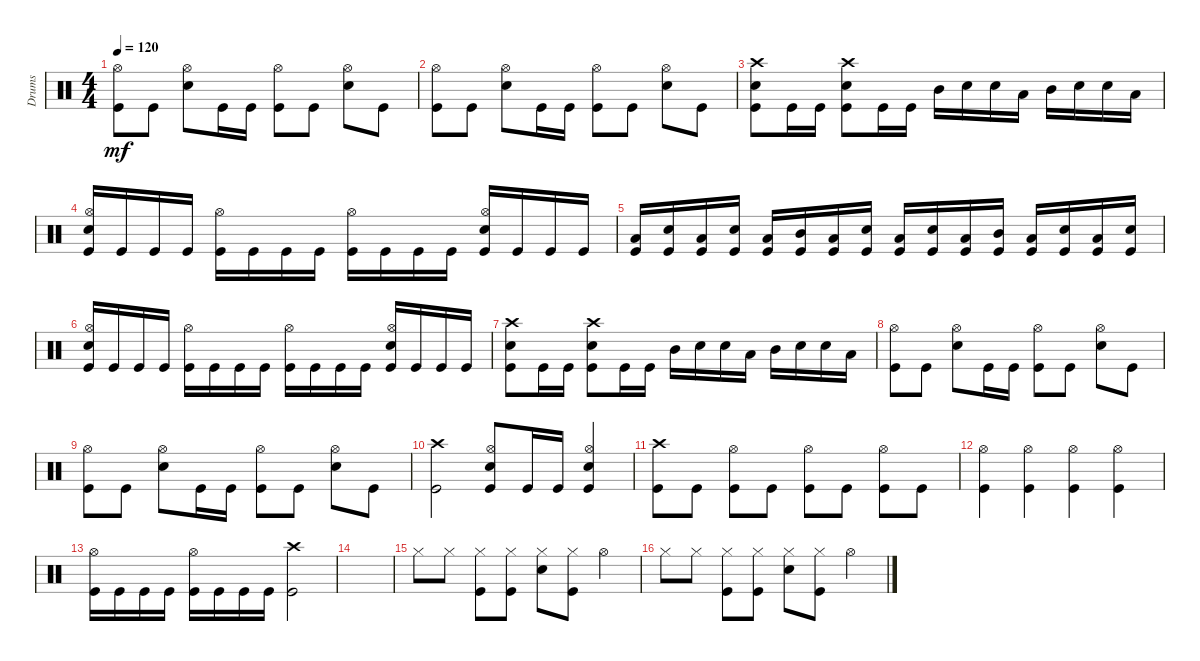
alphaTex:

\track ("Drums" "Drums") {instrument percussion}
\staff {score}
\articulation defaults
\ts (4 4)
\tempo 120
\clef neutral
\ks c
("Kick (hit)" "Hi-Hat (open)").8{dy mf} "Kick (hit)".8 ("Hi-Hat (open)" "Snare (hit) 2").8 "Kick (hit)".16 "Kick (hit)".16 ("Hi-Hat (open)" "Kick (hit)").8 "Kick (hit)".8 ("Hi-Hat (open)" "Snare (hit) 2").8 "Kick (hit)".8 |
("Kick (hit)" "Hi-Hat (open)").8 "Kick (hit)".8 ("Hi-Hat (open)" "Snare (hit) 2").8 "Kick (hit)".16 "Kick (hit)".16 ("Hi-Hat (open)" "Kick (hit)").8 "Kick (hit)".8 ("Hi-Hat (open)" "Snare (hit) 2").8 "Kick (hit)".8 |
("Kick (hit)" "Crash high (hit)" "Snare (hit) 2").8 "Kick (hit)".16 "Kick (hit)".16 ("Kick (hit)" "Crash high (hit)" "Snare (hit) 2").8 "Kick (hit)".16 "Kick (hit)".16 "Mid Tom (hit)".16 "Snare (hit) 2".16 "Snare (hit) 2".16 "Low Floor Tom (hit)".16 "Mid Tom (hit)".16 "Snare (hit) 2".16 "Snare (hit) 2".16 "Low Floor Tom (hit)".16 |
("Kick (hit)" "Hi-Hat (open)" "Snare (hit) 2").16 "Kick (hit)".16 "Kick (hit)".16 "Kick (hit)".16 ("Kick (hit)" "Hi-Hat (open)").16 "Kick (hit)".16 "Kick (hit)".16 "Kick (hit)".16 ("Kick (hit)" "Hi-Hat (open)").16 "Kick (hit)".16 "Kick (hit)".16 "Kick (hit)".16 ("Kick (hit)" "Hi-Hat (open)" "Snare (hit) 2").16 "Kick (hit)".16 "Kick (hit)".16 "Kick (hit)".16 |
("Low Floor Tom (hit)" "Kick (hit)").16 ("Snare (hit) 2" "Kick (hit)").16 ("Low Tom (hit)" "Kick (hit)").16 ("Snare (hit) 2" "Kick (hit)").16 ("Low Floor Tom (hit)" "Kick (hit)").16 ("Mid Tom (hit)" "Kick (hit)").16 ("Low Floor Tom (hit)" "Kick (hit)").16 ("Snare (hit) 2" "Kick (hit)").16 ("Low Tom (hit)" "Kick (hit)").16 ("Snare (hit) 2" "Kick (hit)").16 ("Low Floor Tom (hit)" "Kick (hit)").16 ("Mid Tom (hit)" "Kick (hit)").16 ("Low Floor Tom (hit)" "Kick (hit)").16 ("Snare (hit) 2" "Kick (hit)").16 ("Low Tom (hit)" "Kick (hit)").16 ("Snare (hit) 2" "Kick (hit)").16 |
("Kick (hit)" "Hi-Hat (open)" "Snare (hit) 2").16 "Kick (hit)".16 "Kick (hit)".16 "Kick (hit)".16 ("Kick (hit)" "Hi-Hat (open)").16 "Kick (hit)".16 "Kick (hit)".16 "Kick (hit)".16 ("Kick (hit)" "Hi-Hat (open)").16 "Kick (hit)".16 "Kick (hit)".16 "Kick (hit)".16 ("Kick (hit)" "Hi-Hat (open)" "Snare (hit) 2").16 "Kick (hit)".16 "Kick (hit)".16 "Kick (hit)".16 |
("Kick (hit)" "Crash high (hit)" "Snare (hit) 2").8 "Kick (hit)".16 "Kick (hit)".16 ("Kick (hit)" "Crash high (hit)" "Snare (hit) 2").8 "Kick (hit)".16 "Kick (hit)".16 "Mid Tom (hit)".16 "Snare (hit) 2".16 "Snare (hit) 2".16 "Low Floor Tom (hit)".16 "Mid Tom (hit)".16 "Snare (hit) 2".16 "Snare (hit) 2".16 "Low Floor Tom (hit)".16 |
("Kick (hit)" "Hi-Hat (open)").8 "Kick (hit)".8 ("Hi-Hat (open)" "Snare (hit) 2").8 "Kick (hit)".16 "Kick (hit)".16 ("Hi-Hat (open)" "Kick (hit)").8 "Kick (hit)".8 ("Hi-Hat (open)" "Snare (hit) 2").8 "Kick (hit)".8 |
("Kick (hit)" "Hi-Hat (open)").8 "Kick (hit)".8 ("Hi-Hat (open)" "Snare (hit) 2").8 "Kick (hit)".16 "Kick (hit)".16 ("Hi-Hat (open)" "Kick (hit)").8 "Kick (hit)".8 ("Hi-Hat (open)" "Snare (hit) 2").8 "Kick (hit)".8 |
("Kick (hit)" "Crash high (hit)").2 ("Kick (hit)" "Hi-Hat (open)" "Snare (hit) 2").8 "Kick (hit)".16 "Kick (hit)".16 ("Kick (hit)" "Hi-Hat (open)" "Snare (hit) 2").4 |
("Kick (hit)" "Crash high (hit)").8 "Kick (hit)".8 ("Kick (hit)" "Hi-Hat (open)").8 "Kick (hit)".8 ("Kick (hit)" "Hi-Hat (open)").8 "Kick (hit)".8 ("Kick (hit)" "Hi-Hat (open)").8 "Kick (hit)".8 |
("Kick (hit)" "Hi-Hat (open)").4 ("Kick (hit)" "Hi-Hat (open)").4 ("Kick (hit)" "Hi-Hat (open)").4 ("Kick (hit)" "Hi-Hat (open)").4 |
("Kick (hit)" "Hi-Hat (open)").16 "Kick (hit)".16 "Kick (hit)".16 "Kick (hit)".16 ("Hi-Hat (open)" "Kick (hit)").16 "Kick (hit)".16 "Kick (hit)".16 "Kick (hit)".16 ("Kick (hit)" "Crash high (hit)").2 |
|
"Hi-Hat (closed)".8 "Hi-Hat (closed)".8 ("Hi-Hat (closed)" "Kick (hit)").8 ("Kick (hit)" "Hi-Hat (closed)").8 ("Snare (hit) 2" "Hi-Hat (closed)").8 ("Kick (hit)" "Hi-Hat (closed)").8 "Hi-Hat (open)".4 |
"Hi-Hat (closed)".8 "Hi-Hat (closed)".8 ("Hi-Hat (closed)" "Kick (hit)").8 ("Kick (hit)" "Hi-Hat (closed)").8 ("Snare (hit) 2" "Hi-Hat (closed)").8 ("Kick (hit)" "Hi-Hat (closed)").8 "Hi-Hat (open)".4
